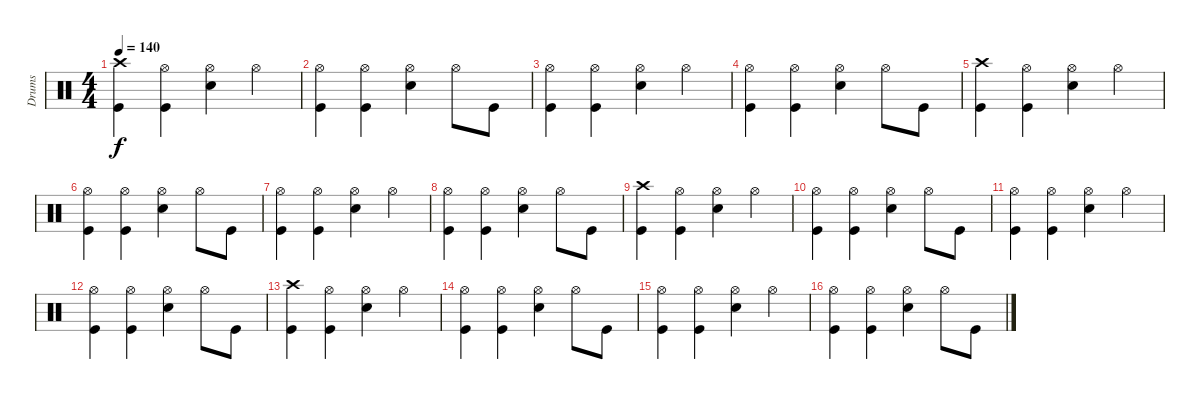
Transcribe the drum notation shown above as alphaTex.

\track ("Drums" "Drums") {instrument percussion}
\staff {score}
\articulation defaults
\ts (4 4)
\tempo 140
\clef neutral
\ks c
("Crash high (hit)" "Kick (hit)").4{dy f} ("Hi-Hat (open)" "Kick (hit)").4 ("Hi-Hat (open)" "Snare (hit) 2").4 "Hi-Hat (open)".4 |
("Hi-Hat (open)" "Kick (hit)").4 ("Hi-Hat (open)" "Kick (hit)").4 ("Hi-Hat (open)" "Snare (hit) 2").4 "Hi-Hat (open)".8 "Kick (hit)".8 |
("Hi-Hat (open)" "Kick (hit)").4 ("Hi-Hat (open)" "Kick (hit)").4 ("Hi-Hat (open)" "Snare (hit) 2").4 "Hi-Hat (open)".4 |
("Hi-Hat (open)" "Kick (hit)").4 ("Hi-Hat (open)" "Kick (hit)").4 ("Hi-Hat (open)" "Snare (hit) 2").4 "Hi-Hat (open)".8 "Kick (hit)".8 |
("Crash high (hit)" "Kick (hit)").4 ("Hi-Hat (open)" "Kick (hit)").4 ("Hi-Hat (open)" "Snare (hit) 2").4 "Hi-Hat (open)".4 |
("Hi-Hat (open)" "Kick (hit)").4 ("Hi-Hat (open)" "Kick (hit)").4 ("Hi-Hat (open)" "Snare (hit) 2").4 "Hi-Hat (open)".8 "Kick (hit)".8 |
("Hi-Hat (open)" "Kick (hit)").4 ("Hi-Hat (open)" "Kick (hit)").4 ("Hi-Hat (open)" "Snare (hit) 2").4 "Hi-Hat (open)".4 |
("Hi-Hat (open)" "Kick (hit)").4 ("Hi-Hat (open)" "Kick (hit)").4 ("Hi-Hat (open)" "Snare (hit) 2").4 "Hi-Hat (open)".8 "Kick (hit)".8 |
("Crash high (hit)" "Kick (hit)").4 ("Hi-Hat (open)" "Kick (hit)").4 ("Hi-Hat (open)" "Snare (hit) 2").4 "Hi-Hat (open)".4 |
("Hi-Hat (open)" "Kick (hit)").4 ("Hi-Hat (open)" "Kick (hit)").4 ("Hi-Hat (open)" "Snare (hit) 2").4 "Hi-Hat (open)".8 "Kick (hit)".8 |
("Hi-Hat (open)" "Kick (hit)").4 ("Hi-Hat (open)" "Kick (hit)").4 ("Hi-Hat (open)" "Snare (hit) 2").4 "Hi-Hat (open)".4 |
("Hi-Hat (open)" "Kick (hit)").4 ("Hi-Hat (open)" "Kick (hit)").4 ("Hi-Hat (open)" "Snare (hit) 2").4 "Hi-Hat (open)".8 "Kick (hit)".8 |
("Crash high (hit)" "Kick (hit)").4 ("Hi-Hat (open)" "Kick (hit)").4 ("Hi-Hat (open)" "Snare (hit) 2").4 "Hi-Hat (open)".4 |
("Hi-Hat (open)" "Kick (hit)").4 ("Hi-Hat (open)" "Kick (hit)").4 ("Hi-Hat (open)" "Snare (hit) 2").4 "Hi-Hat (open)".8 "Kick (hit)".8 |
("Hi-Hat (open)" "Kick (hit)").4 ("Hi-Hat (open)" "Kick (hit)").4 ("Hi-Hat (open)" "Snare (hit) 2").4 "Hi-Hat (open)".4 |
("Hi-Hat (open)" "Kick (hit)").4 ("Hi-Hat (open)" "Kick (hit)").4 ("Hi-Hat (open)" "Snare (hit) 2").4 "Hi-Hat (open)".8 "Kick (hit)".8
